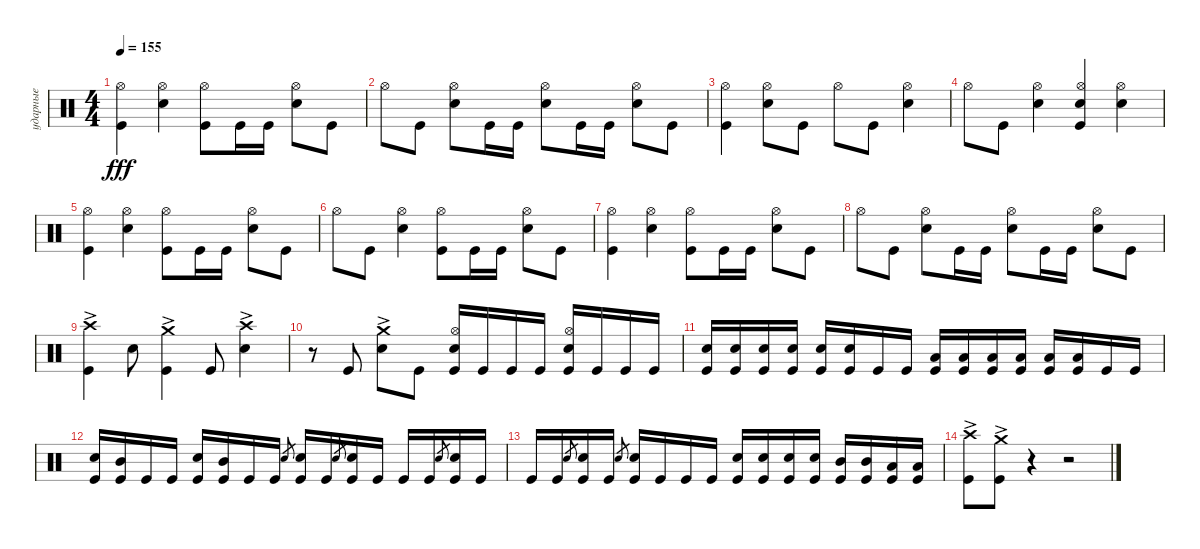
\track ("ударные" "ударные") {instrument percussion}
\staff {score}
\articulation defaults
\ts (4 4)
\tempo 155
\clef neutral
\ks aminor
("Kick (hit)" "Hi-Hat (open)").4{dy fff} ("Snare (hit) 2" "Hi-Hat (open)").4 ("Hi-Hat (open)" "Kick (hit)").8 "Kick (hit)".16 "Kick (hit)".16 ("Snare (hit) 2" "Hi-Hat (open)").8 "Kick (hit)".8 |
"Hi-Hat (open)".8 "Kick (hit)".8 ("Snare (hit) 2" "Hi-Hat (open)").8 "Kick (hit)".16 "Kick (hit)".16 ("Snare (hit) 2" "Hi-Hat (open)").8 "Kick (hit)".16 "Kick (hit)".16 ("Snare (hit) 2" "Hi-Hat (open)").8 "Kick (hit)".8 |
("Kick (hit)" "Hi-Hat (open)").4 ("Snare (hit) 2" "Hi-Hat (open)").8 "Kick (hit)".8 "Hi-Hat (open)".8 "Kick (hit)".8 ("Snare (hit) 2" "Hi-Hat (open)").4 |
"Hi-Hat (open)".8 "Kick (hit)".8 ("Snare (hit) 2" "Hi-Hat (open)").4 ("Snare (hit) 2" "Hi-Hat (open)" "Kick (hit)").4 ("Snare (hit) 2" "Hi-Hat (open)").4 |
("Kick (hit)" "Hi-Hat (open)").4 ("Snare (hit) 2" "Hi-Hat (open)").4 ("Hi-Hat (open)" "Kick (hit)").8 "Kick (hit)".16 "Kick (hit)".16 ("Snare (hit) 2" "Hi-Hat (open)").8 "Kick (hit)".8 |
"Hi-Hat (open)".8 "Kick (hit)".8 ("Snare (hit) 2" "Hi-Hat (open)").4 ("Hi-Hat (open)" "Kick (hit)").8 "Kick (hit)".16 "Kick (hit)".16 ("Snare (hit) 2" "Hi-Hat (open)").8 "Kick (hit)".8 |
("Kick (hit)" "Hi-Hat (open)").4 ("Snare (hit) 2" "Hi-Hat (open)").4 ("Hi-Hat (open)" "Kick (hit)").8 "Kick (hit)".16 "Kick (hit)".16 ("Snare (hit) 2" "Hi-Hat (open)").8 "Kick (hit)".8 |
"Hi-Hat (open)".8 "Kick (hit)".8 ("Snare (hit) 2" "Hi-Hat (open)").8 "Kick (hit)".16 "Kick (hit)".16 ("Snare (hit) 2" "Hi-Hat (open)").8 "Kick (hit)".16 "Kick (hit)".16 ("Snare (hit) 2" "Hi-Hat (open)").8 "Kick (hit)".8 |
("Kick (hit)" "Crash high (hit)"{ac}).4 "Snare (hit) 2".8 ("Kick (hit)" "Crash medium (hit)"{ac}).4 "Kick (hit)".8 ("Snare (hit) 2" "Crash high (hit)"{ac}).4 |
r.8 "Kick (hit)".8 ("Snare (hit) 2" "Crash medium (hit)"{ac}).8 "Kick (hit)".8 ("Snare (hit) 2" "Kick (hit)" "Hi-Hat (open)").16 "Kick (hit)".16 "Kick (hit)".16 "Kick (hit)".16 ("Kick (hit)" "Snare (hit) 2" "Hi-Hat (open)").16 "Kick (hit)".16 "Kick (hit)".16 "Kick (hit)".16 |
("Kick (hit)" "Snare (hit) 2").16 ("Kick (hit)" "Snare (hit) 2").16 ("Kick (hit)" "Snare (hit) 2").16 ("Kick (hit)" "Snare (hit) 2").16 ("Kick (hit)" "Snare (hit) 2").16 ("Kick (hit)" "Snare (hit) 2").16 "Kick (hit)".16 "Kick (hit)".16 ("Kick (hit)" "Low Tom (hit)").16 ("Kick (hit)" "Low Tom (hit)").16 ("Kick (hit)" "Low Tom (hit)").16 ("Kick (hit)" "Low Tom (hit)").16 ("Kick (hit)" "Low Tom (hit)").16 ("Kick (hit)" "Low Tom (hit)").16 "Kick (hit)".16 "Kick (hit)".16 |
("Kick (hit)" "Snare (hit) 2").16 ("Kick (hit)" "Mid Tom (hit)").16 "Kick (hit)".16 "Kick (hit)".16 ("Kick (hit)" "Snare (hit) 2").16 ("Kick (hit)" "Mid Tom (hit)").16 "Kick (hit)".16 "Kick (hit)".16 "Snare (hit) 2"{h}.8{gr} ("Kick (hit)" "Snare (hit) 2").16 "Kick (hit)".16 "Snare (hit) 2"{h}.8{gr} ("Kick (hit)" "Snare (hit) 2").16 "Kick (hit)".16 "Kick (hit)".16 "Kick (hit)".16 "Snare (hit) 2"{h}.8{gr} ("Kick (hit)" "Snare (hit) 2").16 "Kick (hit)".16 |
"Kick (hit)".16 "Kick (hit)".16 "Snare (hit) 2"{h}.8{gr} ("Kick (hit)" "Snare (hit) 2").16 "Kick (hit)".16 "Snare (hit) 2"{h}.8{gr} ("Kick (hit)" "Snare (hit) 2").16 "Kick (hit)".16 "Kick (hit)".16 "Kick (hit)".16 ("Kick (hit)" "Snare (hit) 2").16 ("Kick (hit)" "Snare (hit) 2").16 ("Kick (hit)" "Snare (hit) 2").16 ("Kick (hit)" "Snare (hit) 2").16 ("Kick (hit)" "Mid Tom (hit)").16 ("Kick (hit)" "Mid Tom (hit)").16 ("Kick (hit)" "Low Tom (hit)").16 ("Kick (hit)" "Low Tom (hit)").16 |
("Kick (hit)" "Crash high (hit)"{ac}).8 ("Kick (hit)" "Crash medium (hit)"{ac}).8 r.4 r.2
